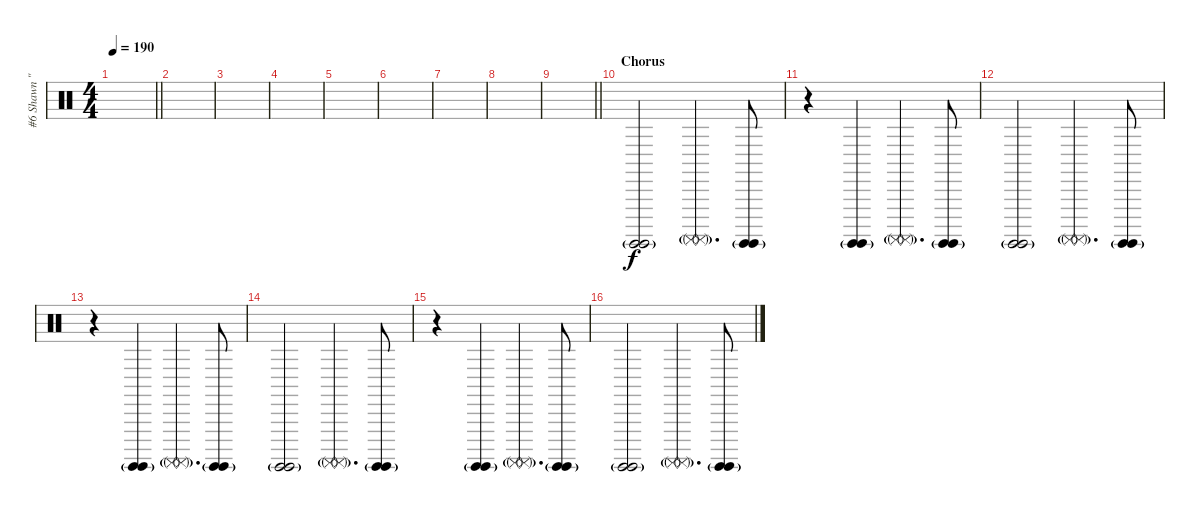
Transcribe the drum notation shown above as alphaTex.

\track ("#6 Shawn \"Clown\" Crahan" "#6 Shawn \"") {instrument percussion}
\staff {score}
\articulation defaults
\ts (4 4)
\tempo 190
\clef neutral
\barLineRight lightlight
\ks c
|
|
|
|
|
|
|
|
\barLineRight lightlight
|
\section ("" "Chorus")
("Surdo (hit)"{g} "Surdo (hit)"{g}).2 ("Surdo (mute)"{g} "Surdo (mute)"{g}).4{d} ("Surdo (hit)"{g} "Surdo (hit)"{g}).8 |
r.4 ("Surdo (hit)"{g} "Surdo (hit)"{g}).4 ("Surdo (mute)"{g} "Surdo (mute)"{g}).4{d} ("Surdo (hit)"{g} "Surdo (hit)"{g}).8 |
("Surdo (hit)"{g} "Surdo (hit)"{g}).2 ("Surdo (mute)"{g} "Surdo (mute)"{g}).4{d} ("Surdo (hit)"{g} "Surdo (hit)"{g}).8 |
r.4 ("Surdo (hit)"{g} "Surdo (hit)"{g}).4 ("Surdo (mute)"{g} "Surdo (mute)"{g}).4{d} ("Surdo (hit)"{g} "Surdo (hit)"{g}).8 |
("Surdo (hit)"{g} "Surdo (hit)"{g}).2 ("Surdo (mute)"{g} "Surdo (mute)"{g}).4{d} ("Surdo (hit)"{g} "Surdo (hit)"{g}).8 |
r.4 ("Surdo (hit)"{g} "Surdo (hit)"{g}).4 ("Surdo (mute)"{g} "Surdo (mute)"{g}).4{d} ("Surdo (hit)"{g} "Surdo (hit)"{g}).8 |
("Surdo (hit)"{g} "Surdo (hit)"{g}).2 ("Surdo (mute)"{g} "Surdo (mute)"{g}).4{d} ("Surdo (hit)"{g} "Surdo (hit)"{g}).8
